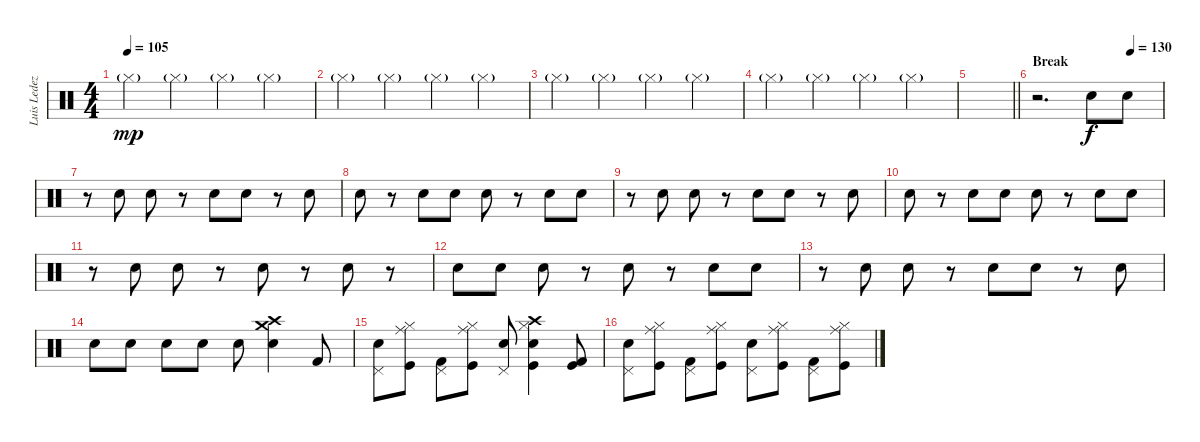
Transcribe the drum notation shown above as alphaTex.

\track ("Luis Ledezma (bateria)" "Luis Ledez") {instrument percussion}
\staff {score}
\articulation defaults
\ts (4 4)
\tempo 105
\clef neutral
\ks c "Hi-Hat (closed)"{g}.4{dy mp} "Hi-Hat (closed)"{g}.4 "Hi-Hat (closed)"{g}.4 "Hi-Hat (closed)"{g}.4
|
"Hi-Hat (closed)"{g}.4 "Hi-Hat (closed)"{g}.4 "Hi-Hat (closed)"{g}.4 "Hi-Hat (closed)"{g}.4 |
"Hi-Hat (closed)"{g}.4 "Hi-Hat (closed)"{g}.4 "Hi-Hat (closed)"{g}.4 "Hi-Hat (closed)"{g}.4 |
"Hi-Hat (closed)"{g}.4 "Hi-Hat (closed)"{g}.4 "Hi-Hat (closed)"{g}.4 "Hi-Hat (closed)"{g}.4 |
\barLineRight lightlight
|
\section ("" "Break")
\tempo (130 0.75)
r.2{d volume 16} "Snare (hit) 2".8{dy f} "Snare (hit) 2".8 |
r.8 "Snare (hit) 2".8 "Snare (hit) 2".8 r.8 "Snare (hit) 2".8 "Snare (hit) 2".8 r.8 "Snare (hit) 2".8 |
"Snare (hit) 2".8 r.8 "Snare (hit) 2".8 "Snare (hit) 2".8 "Snare (hit) 2".8 r.8 "Snare (hit) 2".8 "Snare (hit) 2".8 |
r.8 "Snare (hit) 2".8 "Snare (hit) 2".8 r.8 "Snare (hit) 2".8 "Snare (hit) 2".8 r.8 "Snare (hit) 2".8 |
"Snare (hit) 2".8 r.8 "Snare (hit) 2".8 "Snare (hit) 2".8 "Snare (hit) 2".8 r.8 "Snare (hit) 2".8 "Snare (hit) 2".8 |
r.8 "Snare (hit) 2".8 "Snare (hit) 2".8 r.8 "Snare (hit) 2".8 r.8 "Snare (hit) 2".8 r.8 |
"Snare (hit) 2".8 "Snare (hit) 2".8 "Snare (hit) 2".8 r.8 "Snare (hit) 2".8 r.8 "Snare (hit) 2".8 "Snare (hit) 2".8 |
r.8 "Snare (hit) 2".8 "Snare (hit) 2".8 r.8 "Snare (hit) 2".8 "Snare (hit) 2".8 r.8 "Snare (hit) 2".8 |
"Snare (hit) 2".8 "Snare (hit) 2".8 "Snare (hit) 2".8 "Snare (hit) 2".8 "Snare (hit) 2".8 ("Crash medium (hit)" "Crash high (hit)" "Snare (hit) 2").4 "Kick (hit) 2".8 |
("Pedal Hi-Hat (hit)" "Snare (hit) 2").8 ("Ride (middle)" "Hi-Hat (closed)" "Kick (hit)").8 ("Pedal Hi-Hat (hit)" "Kick (hit) 2").8 ("Ride (middle)" "Hi-Hat (closed)" "Kick (hit)").8 ("Pedal Hi-Hat (hit)" "Snare (hit) 2").8 ("Crash high (hit)" "Hi-Hat (closed)" "Snare (hit) 2" "Kick (hit)").4 ("Kick (hit) 2" "Kick (hit)").8 |
("Pedal Hi-Hat (hit)" "Snare (hit) 2").8 ("Ride (middle)" "Hi-Hat (closed)" "Kick (hit)").8 ("Pedal Hi-Hat (hit)" "Kick (hit) 2").8 ("Ride (middle)" "Hi-Hat (closed)" "Kick (hit)").8 ("Pedal Hi-Hat (hit)" "Snare (hit) 2").8 ("Ride (middle)" "Hi-Hat (closed)" "Kick (hit)").8 ("Pedal Hi-Hat (hit)" "Kick (hit) 2").8 ("Ride (middle)" "Hi-Hat (closed)" "Kick (hit)").8
